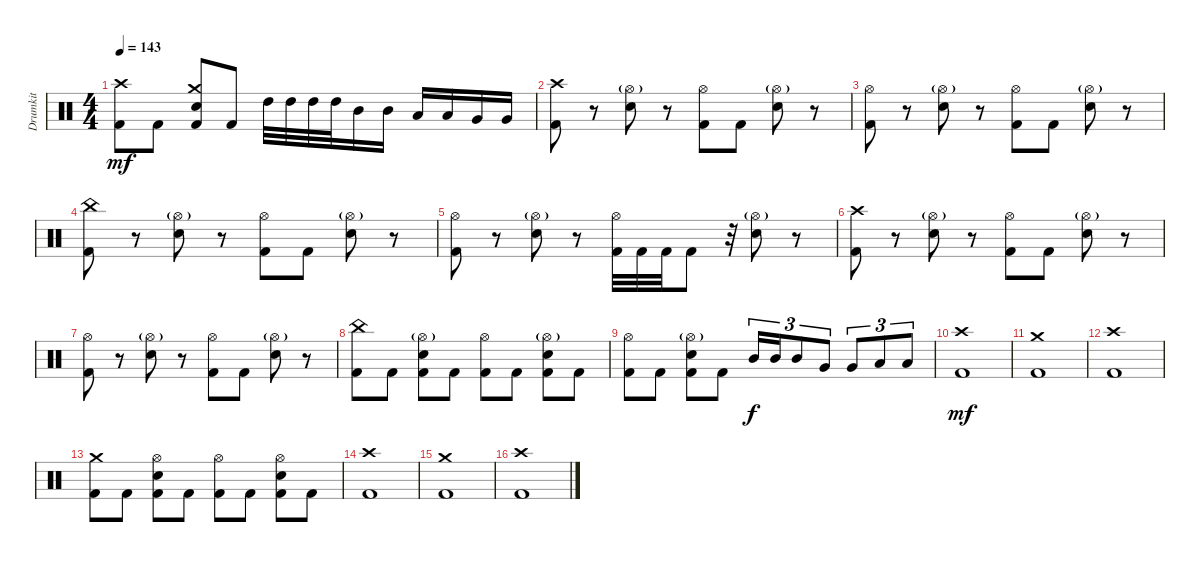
\track ("Drumkit" "Drumkit") {instrument percussion}
\staff {score}
\articulation defaults
\ts (4 4)
\tempo 143
\clef neutral
\ks c
("Crash high (hit)" "Kick (hit) 2").8{dy mf} "Kick (hit) 2".8 ("Crash medium (hit)" "Kick (hit) 2" "Snare (hit) 2").8 "Kick (hit) 2".8 "High Tom (hit)".32 "High Tom (hit)".32 "High Tom (hit)".32 "High Tom (hit)".32 "Mid Tom (hit)".16 "Mid Tom (hit)".16 "Low Tom (hit)".16 "Low Tom (hit)".16 "Very Low Tom (hit)".16 "Very Low Tom (hit)".16 |
("Crash high (hit)" "Kick (hit) 2").8 r.8 ("Hi-Hat (open)"{g} "Snare (hit) 2").8 r.8 ("Hi-Hat (open)" "Kick (hit) 2").8 "Kick (hit) 2".8 ("Hi-Hat (open)"{g} "Snare (hit) 2").8 r.8 |
("Hi-Hat (open)" "Kick (hit) 2").8 r.8 ("Hi-Hat (open)"{g} "Snare (hit) 2").8 r.8 ("Hi-Hat (open)" "Kick (hit) 2").8 "Kick (hit) 2".8 ("Hi-Hat (open)"{g} "Snare (hit) 2").8 r.8 |
("China (hit)" "Kick (hit) 2").8 r.8 ("Hi-Hat (open)"{g} "Snare (hit) 2").8 r.8 ("Hi-Hat (open)" "Kick (hit) 2").8 "Kick (hit) 2".8 ("Hi-Hat (open)"{g} "Snare (hit) 2").8 r.8 |
("Hi-Hat (open)" "Kick (hit) 2").8 r.8 ("Hi-Hat (open)"{g} "Snare (hit) 2").8 r.8 ("Hi-Hat (open)" "Kick (hit) 2").32 "Kick (hit) 2".32 "Kick (hit) 2".32 "Kick (hit) 2".8 r.32 ("Hi-Hat (open)"{g} "Snare (hit) 2").8 r.8 |
("Crash high (hit)" "Kick (hit) 2").8 r.8 ("Hi-Hat (open)"{g} "Snare (hit) 2").8 r.8 ("Hi-Hat (open)" "Kick (hit) 2").8 "Kick (hit) 2".8 ("Hi-Hat (open)"{g} "Snare (hit) 2").8 r.8 |
("Hi-Hat (open)" "Kick (hit) 2").8 r.8 ("Hi-Hat (open)"{g} "Snare (hit) 2").8 r.8 ("Hi-Hat (open)" "Kick (hit) 2").8 "Kick (hit) 2".8 ("Hi-Hat (open)"{g} "Snare (hit) 2").8 r.8 |
("China (hit)" "Kick (hit) 2").8 "Kick (hit) 2".8 ("Hi-Hat (open)"{g} "Kick (hit) 2" "Snare (hit) 2").8 "Kick (hit) 2".8 ("Hi-Hat (open)" "Kick (hit) 2").8 "Kick (hit) 2".8 ("Hi-Hat (open)"{g} "Kick (hit) 2" "Snare (hit) 2").8 "Kick (hit) 2".8 |
("Hi-Hat (open)" "Kick (hit) 2").8 "Kick (hit) 2".8 ("Hi-Hat (open)"{g} "Kick (hit) 2" "Snare (hit) 2").8 "Kick (hit) 2".8 "Mid Tom (hit)".16{tu (3 2) dy f} "Mid Tom (hit)".16{tu (3 2)} "Mid Tom (hit)".8{tu (3 2)} "Very Low Tom (hit)".8{tu (3 2)} "Very Low Tom (hit)".8{tu (3 2)} "Low Tom (hit)".8{tu (3 2)} "Low Tom (hit)".8{tu (3 2)} |
("Crash high (hit)" "Kick (hit) 2").1{dy mf} |
("Crash medium (hit)" "Kick (hit) 2").1 |
("Crash high (hit)" "Kick (hit) 2").1 |
("Crash medium (hit)" "Kick (hit) 2").8 "Kick (hit) 2".8 ("Hi-Hat (open)" "Kick (hit) 2" "Snare (hit) 2").8 "Kick (hit) 2".8 ("Hi-Hat (open)" "Kick (hit) 2").8 "Kick (hit) 2".8 ("Hi-Hat (open)" "Kick (hit) 2" "Snare (hit) 2").8 "Kick (hit) 2".8 |
("Crash high (hit)" "Kick (hit) 2").1 |
("Crash medium (hit)" "Kick (hit) 2").1 |
("Crash high (hit)" "Kick (hit) 2").1
